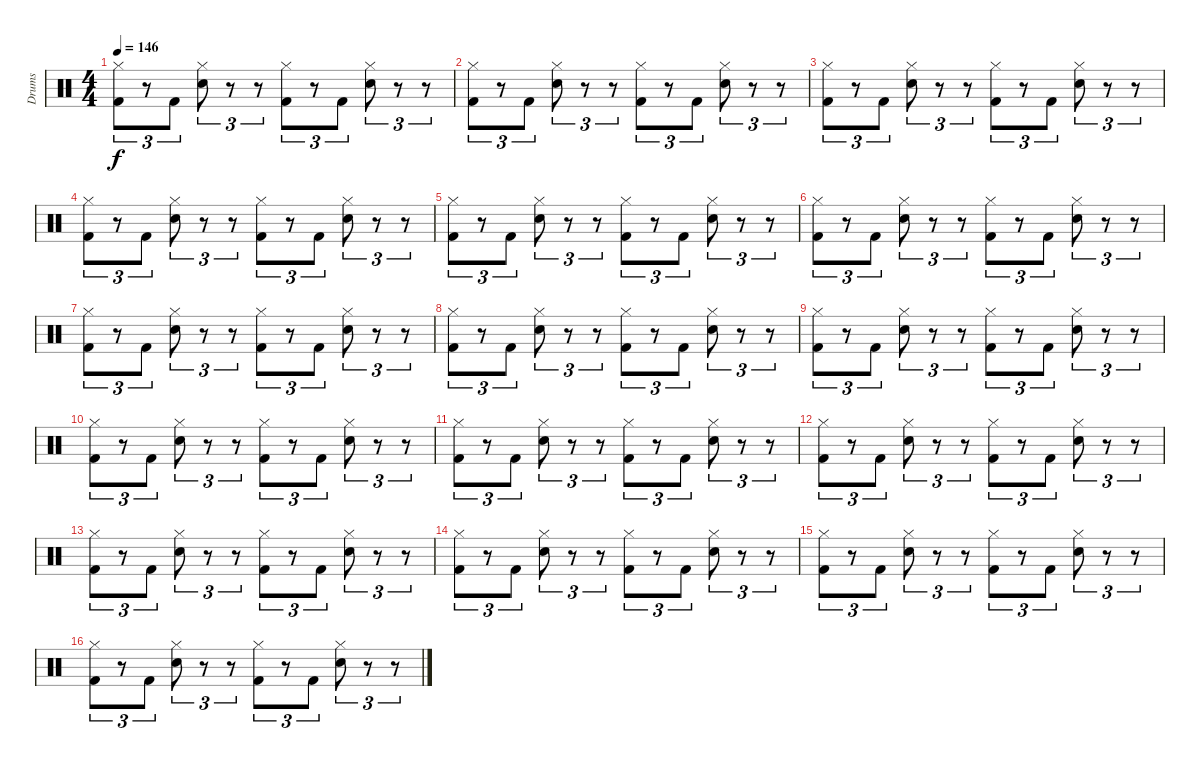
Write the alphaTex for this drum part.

\track ("Drums" "Drums") {instrument percussion}
\staff {score}
\articulation defaults
\ts (4 4)
\tempo 146
\clef neutral
\ks c
("Hi-Hat (closed)" "Kick (hit) 2").8{tu (3 2) dy f} r.8{tu (3 2)} "Kick (hit) 2".8{tu (3 2)} ("Hi-Hat (closed)" "Snare (hit) 2").8{tu (3 2)} r.8{tu (3 2)} r.8{tu (3 2)} ("Hi-Hat (closed)" "Kick (hit) 2").8{tu (3 2)} r.8{tu (3 2)} "Kick (hit) 2".8{tu (3 2)} ("Hi-Hat (closed)" "Snare (hit) 2").8{tu (3 2)} r.8{tu (3 2)} r.8{tu (3 2)} |
("Hi-Hat (closed)" "Kick (hit) 2").8{tu (3 2)} r.8{tu (3 2)} "Kick (hit) 2".8{tu (3 2)} ("Hi-Hat (closed)" "Snare (hit) 2").8{tu (3 2)} r.8{tu (3 2)} r.8{tu (3 2)} ("Hi-Hat (closed)" "Kick (hit) 2").8{tu (3 2)} r.8{tu (3 2)} "Kick (hit) 2".8{tu (3 2)} ("Hi-Hat (closed)" "Snare (hit) 2").8{tu (3 2)} r.8{tu (3 2)} r.8{tu (3 2)} |
("Hi-Hat (closed)" "Kick (hit) 2").8{tu (3 2)} r.8{tu (3 2)} "Kick (hit) 2".8{tu (3 2)} ("Hi-Hat (closed)" "Snare (hit) 2").8{tu (3 2)} r.8{tu (3 2)} r.8{tu (3 2)} ("Hi-Hat (closed)" "Kick (hit) 2").8{tu (3 2)} r.8{tu (3 2)} "Kick (hit) 2".8{tu (3 2)} ("Hi-Hat (closed)" "Snare (hit) 2").8{tu (3 2)} r.8{tu (3 2)} r.8{tu (3 2)} |
("Hi-Hat (closed)" "Kick (hit) 2").8{tu (3 2)} r.8{tu (3 2)} "Kick (hit) 2".8{tu (3 2)} ("Hi-Hat (closed)" "Snare (hit) 2").8{tu (3 2)} r.8{tu (3 2)} r.8{tu (3 2)} ("Hi-Hat (closed)" "Kick (hit) 2").8{tu (3 2)} r.8{tu (3 2)} "Kick (hit) 2".8{tu (3 2)} ("Hi-Hat (closed)" "Snare (hit) 2").8{tu (3 2)} r.8{tu (3 2)} r.8{tu (3 2)} |
("Hi-Hat (closed)" "Kick (hit) 2").8{tu (3 2)} r.8{tu (3 2)} "Kick (hit) 2".8{tu (3 2)} ("Hi-Hat (closed)" "Snare (hit) 2").8{tu (3 2)} r.8{tu (3 2)} r.8{tu (3 2)} ("Hi-Hat (closed)" "Kick (hit) 2").8{tu (3 2)} r.8{tu (3 2)} "Kick (hit) 2".8{tu (3 2)} ("Hi-Hat (closed)" "Snare (hit) 2").8{tu (3 2)} r.8{tu (3 2)} r.8{tu (3 2)} |
("Hi-Hat (closed)" "Kick (hit) 2").8{tu (3 2)} r.8{tu (3 2)} "Kick (hit) 2".8{tu (3 2)} ("Hi-Hat (closed)" "Snare (hit) 2").8{tu (3 2)} r.8{tu (3 2)} r.8{tu (3 2)} ("Hi-Hat (closed)" "Kick (hit) 2").8{tu (3 2)} r.8{tu (3 2)} "Kick (hit) 2".8{tu (3 2)} ("Hi-Hat (closed)" "Snare (hit) 2").8{tu (3 2)} r.8{tu (3 2)} r.8{tu (3 2)} |
("Hi-Hat (closed)" "Kick (hit) 2").8{tu (3 2)} r.8{tu (3 2)} "Kick (hit) 2".8{tu (3 2)} ("Hi-Hat (closed)" "Snare (hit) 2").8{tu (3 2)} r.8{tu (3 2)} r.8{tu (3 2)} ("Hi-Hat (closed)" "Kick (hit) 2").8{tu (3 2)} r.8{tu (3 2)} "Kick (hit) 2".8{tu (3 2)} ("Hi-Hat (closed)" "Snare (hit) 2").8{tu (3 2)} r.8{tu (3 2)} r.8{tu (3 2)} |
("Hi-Hat (closed)" "Kick (hit) 2").8{tu (3 2)} r.8{tu (3 2)} "Kick (hit) 2".8{tu (3 2)} ("Hi-Hat (closed)" "Snare (hit) 2").8{tu (3 2)} r.8{tu (3 2)} r.8{tu (3 2)} ("Hi-Hat (closed)" "Kick (hit) 2").8{tu (3 2)} r.8{tu (3 2)} "Kick (hit) 2".8{tu (3 2)} ("Hi-Hat (closed)" "Snare (hit) 2").8{tu (3 2)} r.8{tu (3 2)} r.8{tu (3 2)} |
("Hi-Hat (closed)" "Kick (hit) 2").8{tu (3 2)} r.8{tu (3 2)} "Kick (hit) 2".8{tu (3 2)} ("Hi-Hat (closed)" "Snare (hit) 2").8{tu (3 2)} r.8{tu (3 2)} r.8{tu (3 2)} ("Hi-Hat (closed)" "Kick (hit) 2").8{tu (3 2)} r.8{tu (3 2)} "Kick (hit) 2".8{tu (3 2)} ("Hi-Hat (closed)" "Snare (hit) 2").8{tu (3 2)} r.8{tu (3 2)} r.8{tu (3 2)} |
("Hi-Hat (closed)" "Kick (hit) 2").8{tu (3 2)} r.8{tu (3 2)} "Kick (hit) 2".8{tu (3 2)} ("Hi-Hat (closed)" "Snare (hit) 2").8{tu (3 2)} r.8{tu (3 2)} r.8{tu (3 2)} ("Hi-Hat (closed)" "Kick (hit) 2").8{tu (3 2)} r.8{tu (3 2)} "Kick (hit) 2".8{tu (3 2)} ("Hi-Hat (closed)" "Snare (hit) 2").8{tu (3 2)} r.8{tu (3 2)} r.8{tu (3 2)} |
("Hi-Hat (closed)" "Kick (hit) 2").8{tu (3 2)} r.8{tu (3 2)} "Kick (hit) 2".8{tu (3 2)} ("Hi-Hat (closed)" "Snare (hit) 2").8{tu (3 2)} r.8{tu (3 2)} r.8{tu (3 2)} ("Hi-Hat (closed)" "Kick (hit) 2").8{tu (3 2)} r.8{tu (3 2)} "Kick (hit) 2".8{tu (3 2)} ("Hi-Hat (closed)" "Snare (hit) 2").8{tu (3 2)} r.8{tu (3 2)} r.8{tu (3 2)} |
("Hi-Hat (closed)" "Kick (hit) 2").8{tu (3 2)} r.8{tu (3 2)} "Kick (hit) 2".8{tu (3 2)} ("Hi-Hat (closed)" "Snare (hit) 2").8{tu (3 2)} r.8{tu (3 2)} r.8{tu (3 2)} ("Hi-Hat (closed)" "Kick (hit) 2").8{tu (3 2)} r.8{tu (3 2)} "Kick (hit) 2".8{tu (3 2)} ("Hi-Hat (closed)" "Snare (hit) 2").8{tu (3 2)} r.8{tu (3 2)} r.8{tu (3 2)} |
("Hi-Hat (closed)" "Kick (hit) 2").8{tu (3 2)} r.8{tu (3 2)} "Kick (hit) 2".8{tu (3 2)} ("Hi-Hat (closed)" "Snare (hit) 2").8{tu (3 2)} r.8{tu (3 2)} r.8{tu (3 2)} ("Hi-Hat (closed)" "Kick (hit) 2").8{tu (3 2)} r.8{tu (3 2)} "Kick (hit) 2".8{tu (3 2)} ("Hi-Hat (closed)" "Snare (hit) 2").8{tu (3 2)} r.8{tu (3 2)} r.8{tu (3 2)} |
("Hi-Hat (closed)" "Kick (hit) 2").8{tu (3 2)} r.8{tu (3 2)} "Kick (hit) 2".8{tu (3 2)} ("Hi-Hat (closed)" "Snare (hit) 2").8{tu (3 2)} r.8{tu (3 2)} r.8{tu (3 2)} ("Hi-Hat (closed)" "Kick (hit) 2").8{tu (3 2)} r.8{tu (3 2)} "Kick (hit) 2".8{tu (3 2)} ("Hi-Hat (closed)" "Snare (hit) 2").8{tu (3 2)} r.8{tu (3 2)} r.8{tu (3 2)} |
("Hi-Hat (closed)" "Kick (hit) 2").8{tu (3 2)} r.8{tu (3 2)} "Kick (hit) 2".8{tu (3 2)} ("Hi-Hat (closed)" "Snare (hit) 2").8{tu (3 2)} r.8{tu (3 2)} r.8{tu (3 2)} ("Hi-Hat (closed)" "Kick (hit) 2").8{tu (3 2)} r.8{tu (3 2)} "Kick (hit) 2".8{tu (3 2)} ("Hi-Hat (closed)" "Snare (hit) 2").8{tu (3 2)} r.8{tu (3 2)} r.8{tu (3 2)} |
("Hi-Hat (closed)" "Kick (hit) 2").8{tu (3 2)} r.8{tu (3 2)} "Kick (hit) 2".8{tu (3 2)} ("Hi-Hat (closed)" "Snare (hit) 2").8{tu (3 2)} r.8{tu (3 2)} r.8{tu (3 2)} ("Hi-Hat (closed)" "Kick (hit) 2").8{tu (3 2)} r.8{tu (3 2)} "Kick (hit) 2".8{tu (3 2)} ("Hi-Hat (closed)" "Snare (hit) 2").8{tu (3 2)} r.8{tu (3 2)} r.8{tu (3 2)}
